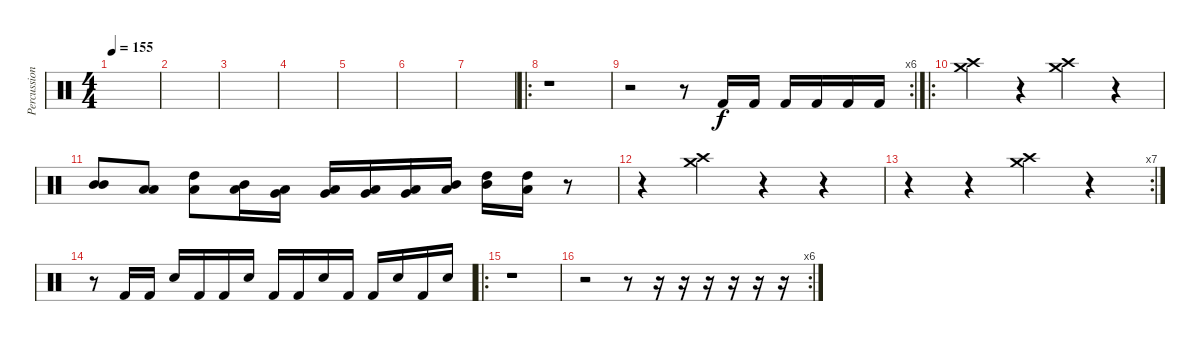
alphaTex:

\track ("Percussion" "Percussion") {instrument percussion}
\staff {score}
\articulation defaults
\ts (4 4)
\tempo 155
\clef neutral
\ks c
|
|
|
|
|
|
|
\ro
r.1 |
\rc 6
r.2 r.8 "Kick (hit) 2".16 "Kick (hit) 2".16 "Kick (hit) 2".16 "Kick (hit) 2".16 "Kick (hit) 2".16 "Kick (hit) 2".16 |
\ro
("Crash high (hit)" "Crash medium (hit)").4 r.4 ("Crash high (hit)" "Crash medium (hit)").4 r.4 |
("Mid Tom (hit)" "Mid Tom (hit)").8 ("Low Tom (hit)" "Low Tom (hit)").8 ("High Tom (hit)" "Low Floor Tom (hit)").8 ("Mid Tom (hit)" "Low Tom (hit)").16 ("Low Tom (hit)" "Very Low Tom (hit)").16 ("Very Low Tom (hit)" "Low Floor Tom (hit)").16 ("Low Floor Tom (hit)" "Very Low Tom (hit)").16 ("Very Low Tom (hit)" "Low Tom (hit)").16 ("Low Tom (hit)" "Mid Tom (hit)").16 ("Mid Tom (hit)" "High Tom (hit)").16 ("High Tom (hit)" "Low Floor Tom (hit)").16 r.8 |
r.4 ("Crash high (hit)" "Crash medium (hit)").4 r.4 r.4 |
\rc 7
r.4 r.4 ("Crash high (hit)" "Crash medium (hit)").4 r.4 |
r.8 "Kick (hit) 2".16 "Kick (hit) 2".16 "Snare (hit) 2".16 "Kick (hit) 2".16 "Kick (hit) 2".16 "Snare (hit) 2".16 "Kick (hit) 2".16 "Kick (hit) 2".16 "Snare (hit) 2".16 "Kick (hit) 2".16 "Kick (hit) 2".16 "Snare (hit) 2".16 "Kick (hit) 2".16 "Snare (hit) 2".16 |
\ro
r.1 |
\rc 6
r.2 r.8 r.16 r.16 r.16 r.16 r.16 r.16
